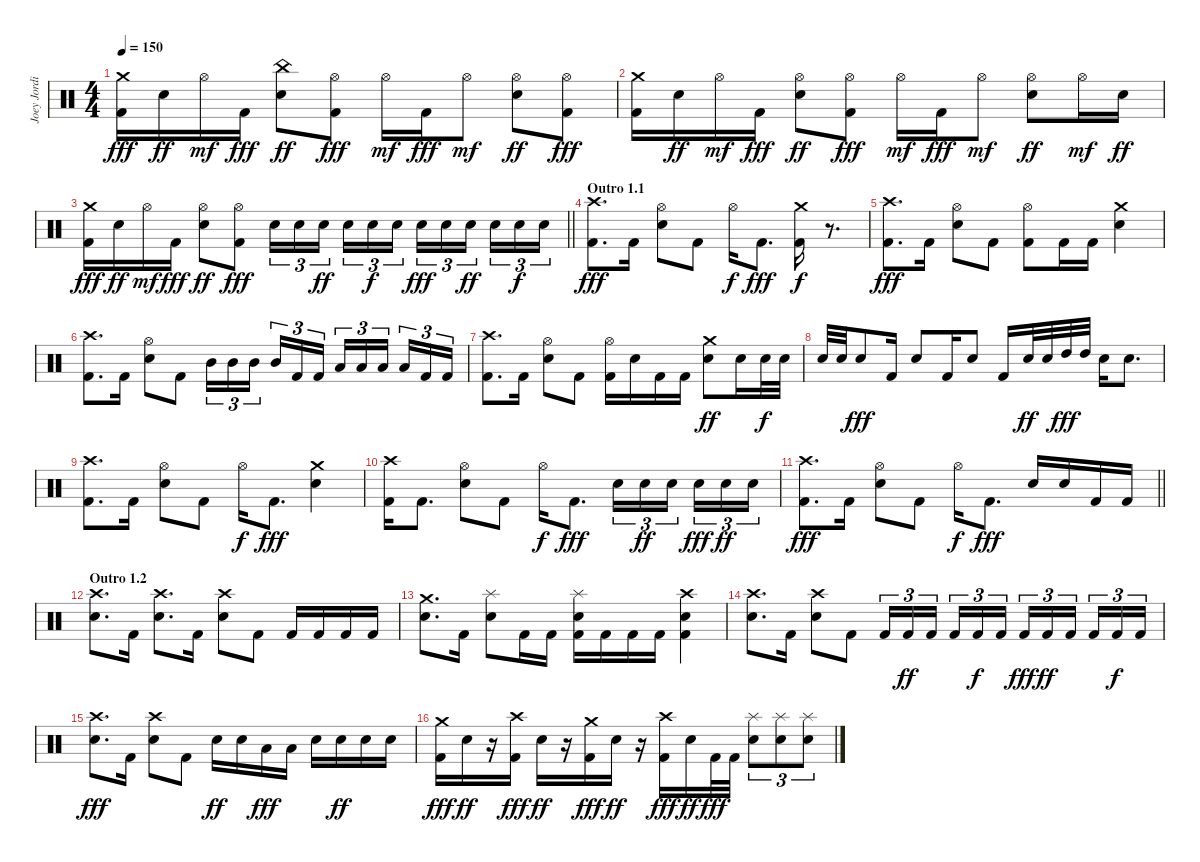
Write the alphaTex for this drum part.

\track ("Joey Jordison" "Joey Jordi") {instrument percussion}
\staff {score}
\articulation defaults
\ts (4 4)
\tempo 150
\clef neutral
\ks c
("Crash medium (hit)" "Kick (hit) 2").16{dy fff} "Electric Snare (hit)".16{dy ff} "Hi-Hat (open)".16{dy mf} "Kick (hit) 2".16{dy fff} ("China (hit)" "Electric Snare (hit)").8{dy ff} ("Hi-Hat (open)" "Kick (hit) 2").8{dy fff} "Hi-Hat (open)".16{dy mf} "Kick (hit) 2".16{dy fff} "Hi-Hat (open)".8{dy mf} ("Hi-Hat (open)" "Electric Snare (hit)").8{dy ff} ("Hi-Hat (open)" "Kick (hit) 2").8{dy fff} |
("Crash medium (hit)" "Kick (hit) 2").16 "Electric Snare (hit)".16{dy ff} "Hi-Hat (open)".16{dy mf} "Kick (hit) 2".16{dy fff} ("Hi-Hat (open)" "Electric Snare (hit)").8{dy ff} ("Hi-Hat (open)" "Kick (hit) 2").8{dy fff} "Hi-Hat (open)".16{dy mf} "Kick (hit) 2".16{dy fff} "Hi-Hat (open)".8{dy mf} ("Hi-Hat (open)" "Electric Snare (hit)").8{dy ff} "Hi-Hat (open)".16{dy mf} "Electric Snare (hit)".16{dy ff} |
\barLineRight lightlight
("Crash medium (hit)" "Kick (hit) 2").16{dy fff} "Electric Snare (hit)".16{dy ff} "Hi-Hat (open)".16{dy mf} "Kick (hit) 2".16{dy fff} ("Hi-Hat (open)" "Electric Snare (hit)").8{dy ff} ("Hi-Hat (open)" "Kick (hit) 2").8{dy fff} "Electric Snare (hit)".16{tu (3 2)} "Electric Snare (hit)".16{tu (3 2)} "Electric Snare (hit)".16{tu (3 2) dy ff beam splitsecondary} "Electric Snare (hit)".16{tu (3 2)} "Electric Snare (hit)".16{tu (3 2) dy f} "Electric Snare (hit)".16{tu (3 2)} "Electric Snare (hit)".16{tu (3 2) dy fff} "Electric Snare (hit)".16{tu (3 2)} "Electric Snare (hit)".16{tu (3 2) dy ff beam splitsecondary} "Electric Snare (hit)".16{tu (3 2)} "Electric Snare (hit)".16{tu (3 2) dy f} "Electric Snare (hit)".16{tu (3 2)} |
\section ("" "Outro 1.1")
("Crash high (hit)" "Kick (hit) 2").8{d dy fff} "Kick (hit) 2".16 ("Hi-Hat (open)" "Electric Snare (hit)").8 "Kick (hit) 2".8 "Hi-Hat (open)".16{dy f} "Kick (hit) 2".8{d dy fff} ("Crash medium (hit)" "Kick (hit) 2").16{dy f} r.8{d volume 0} |
("Crash high (hit)" "Kick (hit) 2").8{d dy fff volume 13} "Kick (hit) 2".16 ("Hi-Hat (open)" "Electric Snare (hit)").8 "Kick (hit) 2".8 ("Hi-Hat (open)" "Kick (hit) 2").8 "Kick (hit) 2".16 "Kick (hit) 2".16 ("Crash medium (hit)" "Electric Snare (hit)").4 |
("Crash high (hit)" "Kick (hit) 2").8{d} "Kick (hit) 2".16 ("Hi-Hat (open)" "Electric Snare (hit)").8 "Kick (hit) 2".8 "Mid Tom (hit)".16{tu (3 2)} "Mid Tom (hit)".16{tu (3 2)} "Mid Tom (hit)".16{tu (3 2) beam splitsecondary} "Mid Tom (hit)".16{tu (3 2)} "Kick (hit) 2".16{tu (3 2)} "Kick (hit) 2".16{tu (3 2)} "Low Tom (hit)".16{tu (3 2)} "Low Tom (hit)".16{tu (3 2)} "Low Tom (hit)".16{tu (3 2) beam splitsecondary} "Low Tom (hit)".16{tu (3 2)} "Kick (hit) 2".16{tu (3 2)} "Kick (hit) 2".16{tu (3 2)} |
("Crash high (hit)" "Kick (hit) 2").8{d} "Kick (hit) 2".16 ("Hi-Hat (open)" "Electric Snare (hit)").8 "Kick (hit) 2".8 ("Hi-Hat (open)" "Kick (hit) 2").16 "Electric Snare (hit)".16 "Kick (hit) 2".16 "Kick (hit) 2".16 ("Crash medium (hit)" "Electric Snare (hit)").8{dy ff} "Electric Snare (hit)".16 "Electric Snare (hit)".32{dy f} "Electric Snare (hit)".32 |
"Electric Snare (hit)".32 "Electric Snare (hit)".32 "Electric Snare (hit)".8{dy fff} "Kick (hit) 2".16 "Electric Snare (hit)".8 "Kick (hit) 2".16 "Electric Snare (hit)".8 "Kick (hit) 2".16 "Electric Snare (hit)".32{dy ff} "Electric Snare (hit)".32 "High Tom (hit)".32{dy fff} "High Tom (hit)".32 "Electric Snare (hit)".16 "Electric Snare (hit)".8{d} |
("Crash high (hit)" "Kick (hit) 2").8{d} "Kick (hit) 2".16 ("Hi-Hat (open)" "Electric Snare (hit)").8 "Kick (hit) 2".8 "Hi-Hat (open)".16{dy f} "Kick (hit) 2".8{d dy fff} ("Crash medium (hit)" "Electric Snare (hit)").4 |
("Crash high (hit)" "Kick (hit) 2").16 "Kick (hit) 2".8{d} ("Hi-Hat (open)" "Electric Snare (hit)").8 "Kick (hit) 2".8 "Hi-Hat (open)".16{dy f} "Kick (hit) 2".8{d dy fff} "Electric Snare (hit)".16{tu (3 2)} "Electric Snare (hit)".16{tu (3 2) dy ff} "Electric Snare (hit)".16{tu (3 2) beam splitsecondary} "Electric Snare (hit)".16{tu (3 2) dy fff} "Electric Snare (hit)".16{tu (3 2) dy ff} "Electric Snare (hit)".16{tu (3 2)} |
\barLineRight lightlight
("Crash high (hit)" "Kick (hit) 2").8{d dy fff} "Kick (hit) 2".16 ("Hi-Hat (open)" "Electric Snare (hit)").8 "Kick (hit) 2".8 "Hi-Hat (open)".16{dy f} "Kick (hit) 2".8{d dy fff} "Electric Snare (hit)".16 "Electric Snare (hit)".16 "Kick (hit) 2".16 "Kick (hit) 2".16 |
\section ("" "Outro 1.2")
("Crash high (hit)" "Electric Snare (hit)").8{d} "Kick (hit) 2".16 ("Crash high (hit)" "Electric Snare (hit)").8{d} "Kick (hit) 2".16 ("Crash high (hit)" "Electric Snare (hit)").8 "Kick (hit) 2".8 "Kick (hit) 2".16 "Kick (hit) 2".16 "Kick (hit) 2".16 "Kick (hit) 2".16 |
("Crash medium (hit)" "Electric Snare (hit)").8{d} "Kick (hit) 2".16 ("Splash (hit)" "Electric Snare (hit)").8 "Kick (hit) 2".16 "Kick (hit) 2".16 ("Splash (hit)" "Electric Snare (hit)" "Kick (hit) 2").16 "Kick (hit) 2".16 "Kick (hit) 2".16 "Kick (hit) 2".16 ("Crash high (hit)" "Electric Snare (hit)" "Kick (hit) 2").4 |
("Crash high (hit)" "Electric Snare (hit)").8{d} "Kick (hit) 2".16 ("Crash high (hit)" "Electric Snare (hit)").8 "Kick (hit) 2".8 "Kick (hit) 2".16{tu (3 2)} "Kick (hit) 2".16{tu (3 2) dy ff} "Kick (hit) 2".16{tu (3 2) beam splitsecondary} "Kick (hit) 2".16{tu (3 2)} "Kick (hit) 2".16{tu (3 2) dy f} "Kick (hit) 2".16{tu (3 2)} "Kick (hit) 2".16{tu (3 2) dy fff} "Kick (hit) 2".16{tu (3 2) dy ff} "Kick (hit) 2".16{tu (3 2) beam splitsecondary} "Kick (hit) 2".16{tu (3 2)} "Kick (hit) 2".16{tu (3 2) dy f} "Kick (hit) 2".16{tu (3 2)} |
("Crash high (hit)" "Electric Snare (hit)").8{d dy fff} "Kick (hit) 2".16 ("Crash high (hit)" "Electric Snare (hit)").8 "Kick (hit) 2".8 "Electric Snare (hit)".16{dy ff} "Electric Snare (hit)".16 "Low Tom (hit)".16{dy fff} "Low Tom (hit)".16 "Electric Snare (hit)".16 "Electric Snare (hit)".16{dy ff} "Electric Snare (hit)".16 "Electric Snare (hit)".16 |
("Crash medium (hit)" "Kick (hit) 2").16{dy fff} "Electric Snare (hit)".16{dy ff} r.16 ("Crash high (hit)" "Kick (hit) 2").16{dy fff} "Electric Snare (hit)".16{dy ff} r.16 ("Crash medium (hit)" "Kick (hit) 2").16{dy fff} "Electric Snare (hit)".16{dy ff} r.16 ("Crash high (hit)" "Kick (hit) 2").16{dy fff} "Electric Snare (hit)".16{dy ff} "Kick (hit) 2".32{dy fff} "Kick (hit) 2".32 ("Splash (hit)" "Electric Snare (hit)").8{tu (3 2)} ("Splash (hit)" "Electric Snare (hit)").8{tu (3 2)} ("Splash (hit)" "Electric Snare (hit)").8{tu (3 2)}
